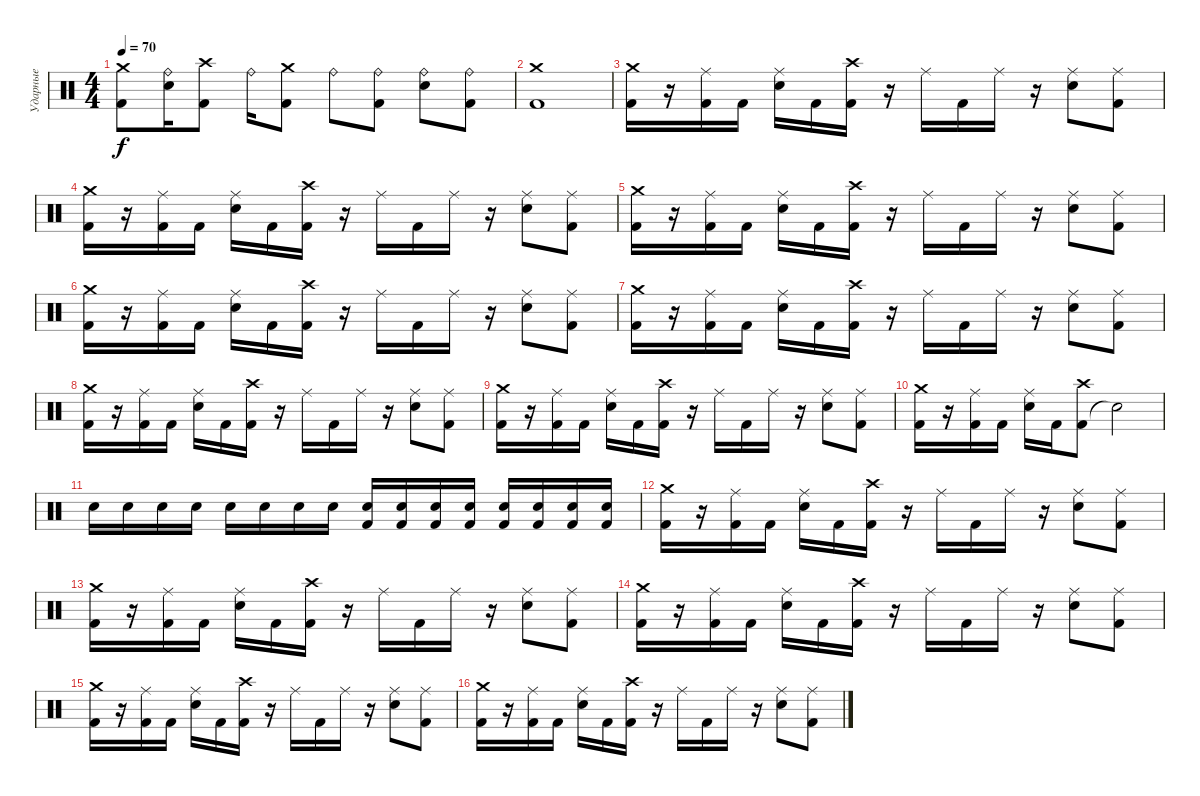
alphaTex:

\track ("Ударные" "Ударные") {instrument percussion}
\staff {score}
\articulation defaults
\ts (4 4)
\tempo 70
\clef neutral
\ks c
("Kick (hit) 2" "Crash medium (hit)").8{dy f} ("Electric Snare (hit)" "Ride (bell)").16 ("Kick (hit) 2" "Crash high (hit)").8 "Ride (bell)".16 ("Kick (hit) 2" "Crash medium (hit)").8 "Ride (bell)".8 ("Kick (hit) 2" "Ride (bell)").8 ("Electric Snare (hit)" "Ride (bell)").8 ("Kick (hit) 2" "Ride (bell)").8 |
("Kick (hit) 2" "Crash medium (hit)").1 |
("Crash medium (hit)" "Kick (hit) 2").16 r.16 ("Ride (middle)" "Kick (hit) 2").16 "Kick (hit) 2".16 ("Ride (middle)" "Electric Snare (hit)").16 "Kick (hit) 2".16 ("Kick (hit) 2" "Crash high (hit)").16 r.16 "Ride (middle)".16 "Kick (hit) 2".16 "Ride (middle)".16 r.16 ("Ride (middle)" "Electric Snare (hit)").8 ("Ride (middle)" "Kick (hit) 2").8 |
("Crash medium (hit)" "Kick (hit) 2").16 r.16 ("Ride (middle)" "Kick (hit) 2").16 "Kick (hit) 2".16 ("Ride (middle)" "Electric Snare (hit)").16 "Kick (hit) 2".16 ("Kick (hit) 2" "Crash high (hit)").16 r.16 "Ride (middle)".16 "Kick (hit) 2".16 "Ride (middle)".16 r.16 ("Ride (middle)" "Electric Snare (hit)").8 ("Ride (middle)" "Kick (hit) 2").8 |
("Crash medium (hit)" "Kick (hit) 2").16 r.16 ("Ride (middle)" "Kick (hit) 2").16 "Kick (hit) 2".16 ("Ride (middle)" "Electric Snare (hit)").16 "Kick (hit) 2".16 ("Kick (hit) 2" "Crash high (hit)").16 r.16 "Ride (middle)".16 "Kick (hit) 2".16 "Ride (middle)".16 r.16 ("Ride (middle)" "Electric Snare (hit)").8 ("Ride (middle)" "Kick (hit) 2").8 |
("Crash medium (hit)" "Kick (hit) 2").16 r.16 ("Ride (middle)" "Kick (hit) 2").16 "Kick (hit) 2".16 ("Ride (middle)" "Electric Snare (hit)").16 "Kick (hit) 2".16 ("Kick (hit) 2" "Crash high (hit)").16 r.16 "Ride (middle)".16 "Kick (hit) 2".16 "Ride (middle)".16 r.16 ("Ride (middle)" "Electric Snare (hit)").8 ("Ride (middle)" "Kick (hit) 2").8 |
("Crash medium (hit)" "Kick (hit) 2").16 r.16 ("Ride (middle)" "Kick (hit) 2").16 "Kick (hit) 2".16 ("Ride (middle)" "Electric Snare (hit)").16 "Kick (hit) 2".16 ("Kick (hit) 2" "Crash high (hit)").16 r.16 "Ride (middle)".16 "Kick (hit) 2".16 "Ride (middle)".16 r.16 ("Ride (middle)" "Electric Snare (hit)").8 ("Ride (middle)" "Kick (hit) 2").8 |
("Crash medium (hit)" "Kick (hit) 2").16 r.16 ("Ride (middle)" "Kick (hit) 2").16 "Kick (hit) 2".16 ("Ride (middle)" "Electric Snare (hit)").16 "Kick (hit) 2".16 ("Kick (hit) 2" "Crash high (hit)").16 r.16 "Ride (middle)".16 "Kick (hit) 2".16 "Ride (middle)".16 r.16 ("Ride (middle)" "Electric Snare (hit)").8 ("Ride (middle)" "Kick (hit) 2").8 |
("Crash medium (hit)" "Kick (hit) 2").16 r.16 ("Ride (middle)" "Kick (hit) 2").16 "Kick (hit) 2".16 ("Ride (middle)" "Electric Snare (hit)").16 "Kick (hit) 2".16 ("Kick (hit) 2" "Crash high (hit)").16 r.16 "Ride (middle)".16 "Kick (hit) 2".16 "Ride (middle)".16 r.16 ("Ride (middle)" "Electric Snare (hit)").8 ("Ride (middle)" "Kick (hit) 2").8 |
("Crash medium (hit)" "Kick (hit) 2").16 r.16 ("Ride (middle)" "Kick (hit) 2").16 "Kick (hit) 2".16 ("Ride (middle)" "Electric Snare (hit)").16 "Kick (hit) 2".16 ("Kick (hit) 2" "Crash high (hit)").8 "Snare (hit)"{t}.2 |
"Electric Snare (hit)".16 "Electric Snare (hit)".16 "Electric Snare (hit)".16 "Electric Snare (hit)".16 "Electric Snare (hit)".16 "Electric Snare (hit)".16 "Electric Snare (hit)".16 "Electric Snare (hit)".16 ("Electric Snare (hit)" "Kick (hit) 2").16 ("Electric Snare (hit)" "Kick (hit) 2").16 ("Electric Snare (hit)" "Kick (hit) 2").16 ("Electric Snare (hit)" "Kick (hit) 2").16 ("Electric Snare (hit)" "Kick (hit) 2").16 ("Electric Snare (hit)" "Kick (hit) 2").16 ("Electric Snare (hit)" "Kick (hit) 2").16 ("Electric Snare (hit)" "Kick (hit) 2").16 |
("Crash medium (hit)" "Kick (hit) 2").16 r.16 ("Ride (middle)" "Kick (hit) 2").16 "Kick (hit) 2".16 ("Ride (middle)" "Electric Snare (hit)").16 "Kick (hit) 2".16 ("Kick (hit) 2" "Crash high (hit)").16 r.16 "Ride (middle)".16 "Kick (hit) 2".16 "Ride (middle)".16 r.16 ("Ride (middle)" "Electric Snare (hit)").8 ("Ride (middle)" "Kick (hit) 2").8 |
("Crash medium (hit)" "Kick (hit) 2").16 r.16 ("Ride (middle)" "Kick (hit) 2").16 "Kick (hit) 2".16 ("Ride (middle)" "Electric Snare (hit)").16 "Kick (hit) 2".16 ("Kick (hit) 2" "Crash high (hit)").16 r.16 "Ride (middle)".16 "Kick (hit) 2".16 "Ride (middle)".16 r.16 ("Ride (middle)" "Electric Snare (hit)").8 ("Ride (middle)" "Kick (hit) 2").8 |
("Crash medium (hit)" "Kick (hit) 2").16 r.16 ("Ride (middle)" "Kick (hit) 2").16 "Kick (hit) 2".16 ("Ride (middle)" "Electric Snare (hit)").16 "Kick (hit) 2".16 ("Kick (hit) 2" "Crash high (hit)").16 r.16 "Ride (middle)".16 "Kick (hit) 2".16 "Ride (middle)".16 r.16 ("Ride (middle)" "Electric Snare (hit)").8 ("Ride (middle)" "Kick (hit) 2").8 |
("Crash medium (hit)" "Kick (hit) 2").16 r.16 ("Ride (middle)" "Kick (hit) 2").16 "Kick (hit) 2".16 ("Ride (middle)" "Electric Snare (hit)").16 "Kick (hit) 2".16 ("Kick (hit) 2" "Crash high (hit)").16 r.16 "Ride (middle)".16 "Kick (hit) 2".16 "Ride (middle)".16 r.16 ("Ride (middle)" "Electric Snare (hit)").8 ("Ride (middle)" "Kick (hit) 2").8 |
("Crash medium (hit)" "Kick (hit) 2").16 r.16 ("Ride (middle)" "Kick (hit) 2").16 "Kick (hit) 2".16 ("Ride (middle)" "Electric Snare (hit)").16 "Kick (hit) 2".16 ("Kick (hit) 2" "Crash high (hit)").16 r.16 "Ride (middle)".16 "Kick (hit) 2".16 "Ride (middle)".16 r.16 ("Ride (middle)" "Electric Snare (hit)").8 ("Ride (middle)" "Kick (hit) 2").8
